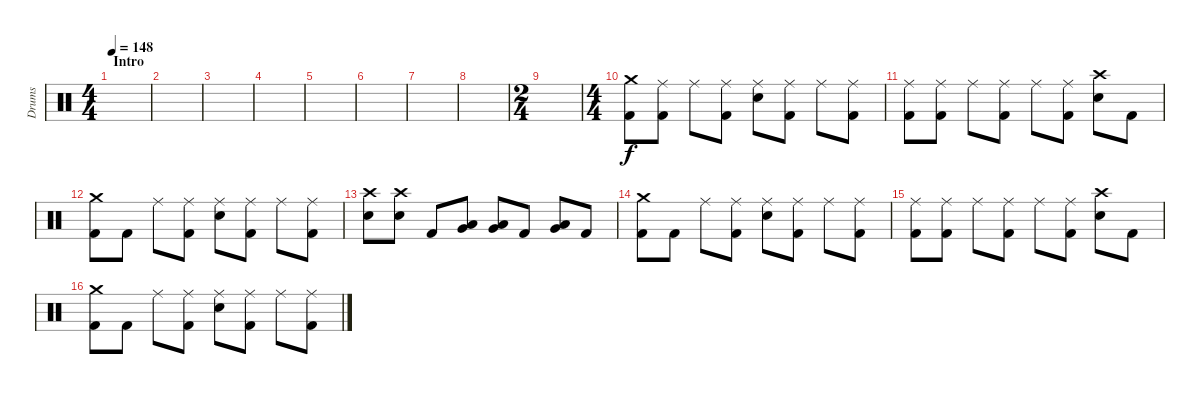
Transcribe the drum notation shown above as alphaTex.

\track ("Drums" "Drums") {instrument percussion}
\staff {score}
\articulation defaults
\ts (4 4)
\section ("" "Intro")
\tempo 148
\clef neutral
\ks c
|
|
|
|
|
|
|
|
\ts (2 4)
|
\ts (4 4)
("Crash medium (hit)" "Kick (hit) 2").8 ("Ride (middle)" "Kick (hit) 2").8 "Ride (middle)".8 ("Ride (middle)" "Kick (hit) 2").8 ("Ride (middle)" "Electric Snare (hit)").8 ("Ride (middle)" "Kick (hit) 2").8 "Ride (middle)".8 ("Ride (middle)" "Kick (hit) 2").8 |
("Ride (middle)" "Kick (hit) 2").8 ("Ride (middle)" "Kick (hit) 2").8 "Ride (middle)".8 ("Ride (middle)" "Kick (hit) 2").8 "Ride (middle)".8 ("Ride (middle)" "Kick (hit) 2").8 ("Crash high (hit)" "Electric Snare (hit)").8 "Kick (hit) 2".8 |
("Crash medium (hit)" "Kick (hit) 2").8 "Kick (hit) 2".8 "Ride (middle)".8 ("Ride (middle)" "Kick (hit) 2").8 ("Ride (middle)" "Electric Snare (hit)").8 ("Ride (middle)" "Kick (hit) 2").8 "Ride (middle)".8 ("Ride (middle)" "Kick (hit) 2").8 |
("Crash high (hit)" "Electric Snare (hit)").8 ("Crash high (hit)" "Electric Snare (hit)").8 "Kick (hit) 2".8 ("Low Tom (hit)" "Very Low Tom (hit)").8 ("Low Tom (hit)" "Very Low Tom (hit)").8 "Kick (hit) 2".8 ("Very Low Tom (hit)" "Low Floor Tom (hit)").8 "Kick (hit) 2".8 |
("Crash medium (hit)" "Kick (hit) 2").8 "Kick (hit) 2".8 "Ride (middle)".8 ("Ride (middle)" "Kick (hit) 2").8 ("Ride (middle)" "Electric Snare (hit)").8 ("Ride (middle)" "Kick (hit) 2").8 "Ride (middle)".8 ("Ride (middle)" "Kick (hit) 2").8 |
("Ride (middle)" "Kick (hit) 2").8 ("Ride (middle)" "Kick (hit) 2").8 "Ride (middle)".8 ("Ride (middle)" "Kick (hit) 2").8 "Ride (middle)".8 ("Ride (middle)" "Kick (hit) 2").8 ("Crash high (hit)" "Electric Snare (hit)").8 "Kick (hit) 2".8 |
("Crash medium (hit)" "Kick (hit) 2").8 "Kick (hit) 2".8 "Ride (middle)".8 ("Ride (middle)" "Kick (hit) 2").8 ("Ride (middle)" "Electric Snare (hit)").8 ("Ride (middle)" "Kick (hit) 2").8 "Ride (middle)".8 ("Ride (middle)" "Kick (hit) 2").8
